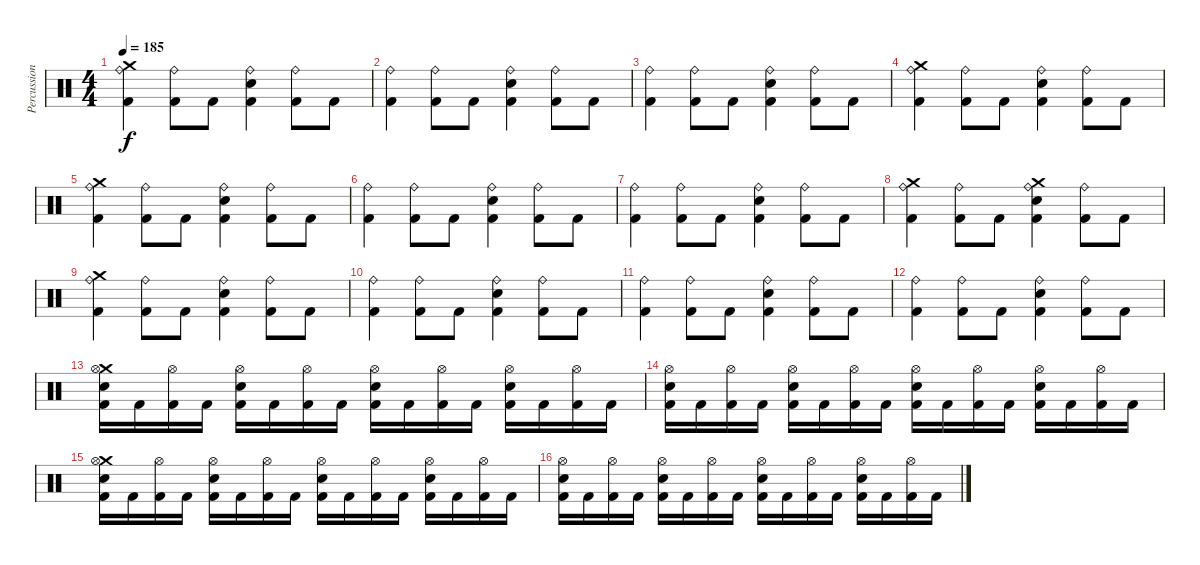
\track ("Percussion" "Percussion") {instrument percussion}
\staff {score}
\articulation defaults
\ts (4 4)
\tempo 185
\clef neutral
\ks c
("Crash medium (hit)" "Ride (bell)" "Kick (hit) 2").4{dy f} ("Ride (bell)" "Kick (hit) 2").8 "Kick (hit) 2".8 ("Ride (bell)" "Electric Snare (hit)" "Kick (hit) 2").4 ("Ride (bell)" "Kick (hit) 2").8 "Kick (hit) 2".8 |
("Ride (bell)" "Kick (hit) 2").4 ("Ride (bell)" "Kick (hit) 2").8 "Kick (hit) 2".8 ("Ride (bell)" "Electric Snare (hit)" "Kick (hit) 2").4 ("Ride (bell)" "Kick (hit) 2").8 "Kick (hit) 2".8 |
("Ride (bell)" "Kick (hit) 2").4 ("Ride (bell)" "Kick (hit) 2").8 "Kick (hit) 2".8 ("Ride (bell)" "Electric Snare (hit)" "Kick (hit) 2").4 ("Ride (bell)" "Kick (hit) 2").8 "Kick (hit) 2".8 |
("Crash medium (hit)" "Ride (bell)" "Kick (hit) 2").4 ("Ride (bell)" "Kick (hit) 2").8 "Kick (hit) 2".8 ("Ride (bell)" "Electric Snare (hit)" "Kick (hit) 2").4 ("Ride (bell)" "Kick (hit) 2").8 "Kick (hit) 2".8 |
("Crash medium (hit)" "Ride (bell)" "Kick (hit) 2").4 ("Ride (bell)" "Kick (hit) 2").8 "Kick (hit) 2".8 ("Ride (bell)" "Electric Snare (hit)" "Kick (hit) 2").4 ("Ride (bell)" "Kick (hit) 2").8 "Kick (hit) 2".8 |
("Ride (bell)" "Kick (hit) 2").4 ("Ride (bell)" "Kick (hit) 2").8 "Kick (hit) 2".8 ("Ride (bell)" "Electric Snare (hit)" "Kick (hit) 2").4 ("Ride (bell)" "Kick (hit) 2").8 "Kick (hit) 2".8 |
("Ride (bell)" "Kick (hit) 2").4 ("Ride (bell)" "Kick (hit) 2").8 "Kick (hit) 2".8 ("Ride (bell)" "Electric Snare (hit)" "Kick (hit) 2").4 ("Ride (bell)" "Kick (hit) 2").8 "Kick (hit) 2".8 |
("Crash medium (hit)" "Ride (bell)" "Kick (hit) 2").4 ("Ride (bell)" "Kick (hit) 2").8 "Kick (hit) 2".8 ("Crash medium (hit)" "Ride (bell)" "Electric Snare (hit)" "Kick (hit) 2").4 ("Ride (bell)" "Kick (hit) 2").8 "Kick (hit) 2".8 |
("Crash medium (hit)" "Ride (bell)" "Kick (hit) 2").4 ("Ride (bell)" "Kick (hit) 2").8 "Kick (hit) 2".8 ("Ride (bell)" "Electric Snare (hit)" "Kick (hit) 2").4 ("Ride (bell)" "Kick (hit) 2").8 "Kick (hit) 2".8 |
("Ride (bell)" "Kick (hit) 2").4 ("Ride (bell)" "Kick (hit) 2").8 "Kick (hit) 2".8 ("Ride (bell)" "Electric Snare (hit)" "Kick (hit) 2").4 ("Ride (bell)" "Kick (hit) 2").8 "Kick (hit) 2".8 |
("Ride (bell)" "Kick (hit) 2").4 ("Ride (bell)" "Kick (hit) 2").8 "Kick (hit) 2".8 ("Ride (bell)" "Electric Snare (hit)" "Kick (hit) 2").4 ("Ride (bell)" "Kick (hit) 2").8 "Kick (hit) 2".8 |
("Ride (bell)" "Kick (hit) 2").4 ("Ride (bell)" "Kick (hit) 2").8 "Kick (hit) 2".8 ("Ride (bell)" "Electric Snare (hit)" "Kick (hit) 2").4 ("Ride (bell)" "Kick (hit) 2").8 "Kick (hit) 2".8 |
("Crash medium (hit)" "Hi-Hat (open)" "Electric Snare (hit)" "Kick (hit) 2").16 "Kick (hit) 2".16 ("Hi-Hat (open)" "Kick (hit) 2").16 "Kick (hit) 2".16 ("Hi-Hat (open)" "Electric Snare (hit)" "Kick (hit) 2").16 "Kick (hit) 2".16 ("Hi-Hat (open)" "Kick (hit) 2").16 "Kick (hit) 2".16 ("Hi-Hat (open)" "Electric Snare (hit)" "Kick (hit) 2").16 "Kick (hit) 2".16 ("Hi-Hat (open)" "Kick (hit) 2").16 "Kick (hit) 2".16 ("Hi-Hat (open)" "Electric Snare (hit)" "Kick (hit) 2").16 "Kick (hit) 2".16 ("Hi-Hat (open)" "Kick (hit) 2").16 "Kick (hit) 2".16 |
("Hi-Hat (open)" "Electric Snare (hit)" "Kick (hit) 2").16 "Kick (hit) 2".16 ("Hi-Hat (open)" "Kick (hit) 2").16 "Kick (hit) 2".16 ("Hi-Hat (open)" "Electric Snare (hit)" "Kick (hit) 2").16 "Kick (hit) 2".16 ("Hi-Hat (open)" "Kick (hit) 2").16 "Kick (hit) 2".16 ("Hi-Hat (open)" "Electric Snare (hit)" "Kick (hit) 2").16 "Kick (hit) 2".16 ("Hi-Hat (open)" "Kick (hit) 2").16 "Kick (hit) 2".16 ("Hi-Hat (open)" "Electric Snare (hit)" "Kick (hit) 2").16 "Kick (hit) 2".16 ("Hi-Hat (open)" "Kick (hit) 2").16 "Kick (hit) 2".16 |
("Crash medium (hit)" "Hi-Hat (open)" "Electric Snare (hit)" "Kick (hit) 2").16 "Kick (hit) 2".16 ("Hi-Hat (open)" "Kick (hit) 2").16 "Kick (hit) 2".16 ("Hi-Hat (open)" "Electric Snare (hit)" "Kick (hit) 2").16 "Kick (hit) 2".16 ("Hi-Hat (open)" "Kick (hit) 2").16 "Kick (hit) 2".16 ("Hi-Hat (open)" "Electric Snare (hit)" "Kick (hit) 2").16 "Kick (hit) 2".16 ("Hi-Hat (open)" "Kick (hit) 2").16 "Kick (hit) 2".16 ("Hi-Hat (open)" "Electric Snare (hit)" "Kick (hit) 2").16 "Kick (hit) 2".16 ("Hi-Hat (open)" "Kick (hit) 2").16 "Kick (hit) 2".16 |
("Hi-Hat (open)" "Electric Snare (hit)" "Kick (hit) 2").16 "Kick (hit) 2".16 ("Hi-Hat (open)" "Kick (hit) 2").16 "Kick (hit) 2".16 ("Hi-Hat (open)" "Electric Snare (hit)" "Kick (hit) 2").16 "Kick (hit) 2".16 ("Hi-Hat (open)" "Kick (hit) 2").16 "Kick (hit) 2".16 ("Hi-Hat (open)" "Electric Snare (hit)" "Kick (hit) 2").16 "Kick (hit) 2".16 ("Hi-Hat (open)" "Kick (hit) 2").16 "Kick (hit) 2".16 ("Hi-Hat (open)" "Electric Snare (hit)" "Kick (hit) 2").16 "Kick (hit) 2".16 ("Hi-Hat (open)" "Kick (hit) 2").16 "Kick (hit) 2".16
